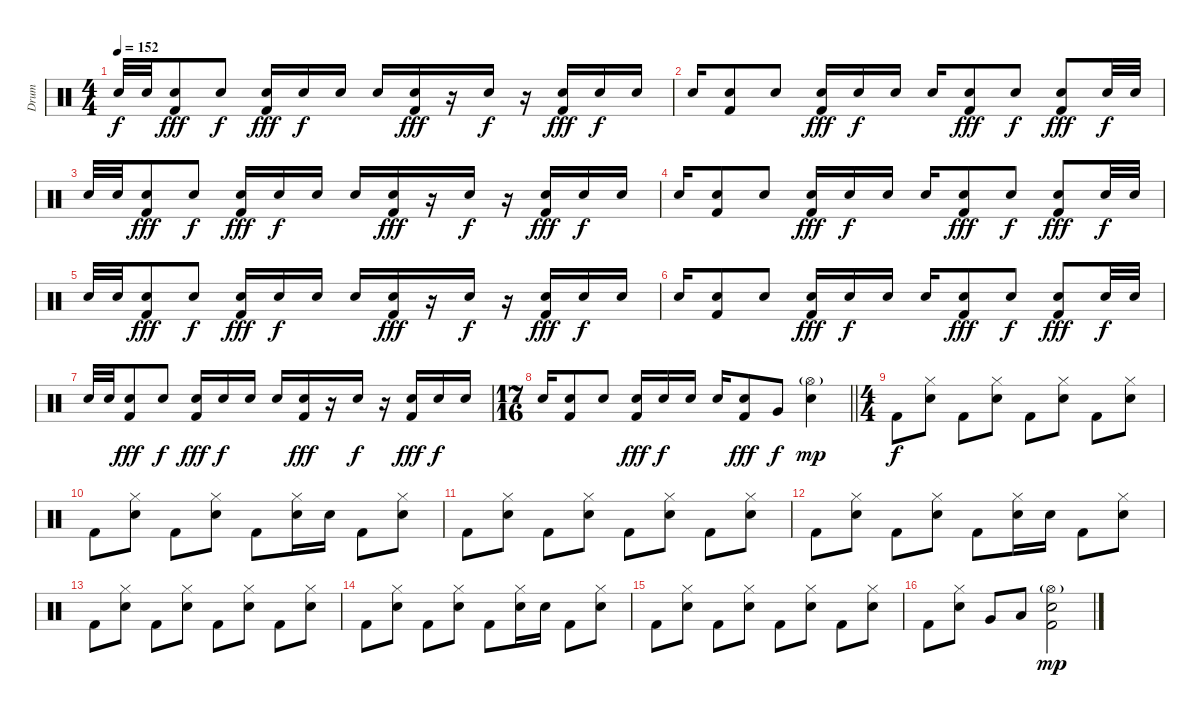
\track ("Drum" "Drum") {instrument percussion}
\staff {score}
\articulation defaults
\ts (4 4)
\tempo 152
\clef neutral
\ks c "Electric Snare (hit)".32{dy f volume 13} "Electric Snare (hit)".32
("Electric Snare (hit)" "Kick (hit) 2").8{dy fff} "Electric Snare (hit)".8{dy f} ("Electric Snare (hit)" "Kick (hit) 2").16{dy fff} "Electric Snare (hit)".16{dy f} "Electric Snare (hit)".16 "Electric Snare (hit)".16 ("Electric Snare (hit)" "Kick (hit) 2").16{dy fff} r.16 "Electric Snare (hit)".16{dy f} r.16 ("Electric Snare (hit)" "Kick (hit) 2").16{dy fff} "Electric Snare (hit)".16{dy f} "Electric Snare (hit)".16 |
"Electric Snare (hit)".16 ("Electric Snare (hit)" "Kick (hit) 2").8 "Electric Snare (hit)".8 ("Electric Snare (hit)" "Kick (hit) 2").16{dy fff} "Electric Snare (hit)".16{dy f} "Electric Snare (hit)".16 "Electric Snare (hit)".16 ("Electric Snare (hit)" "Kick (hit) 2").8{dy fff} "Electric Snare (hit)".8{dy f} ("Electric Snare (hit)" "Kick (hit) 2").8{dy fff} "Electric Snare (hit)".32{dy f} "Electric Snare (hit)".32 |
"Electric Snare (hit)".32 "Electric Snare (hit)".32 ("Electric Snare (hit)" "Kick (hit) 2").8{dy fff} "Electric Snare (hit)".8{dy f} ("Electric Snare (hit)" "Kick (hit) 2").16{dy fff} "Electric Snare (hit)".16{dy f} "Electric Snare (hit)".16 "Electric Snare (hit)".16 ("Electric Snare (hit)" "Kick (hit) 2").16{dy fff} r.16 "Electric Snare (hit)".16{dy f} r.16 ("Electric Snare (hit)" "Kick (hit) 2").16{dy fff} "Electric Snare (hit)".16{dy f} "Electric Snare (hit)".16 |
"Electric Snare (hit)".16 ("Electric Snare (hit)" "Kick (hit) 2").8 "Electric Snare (hit)".8 ("Electric Snare (hit)" "Kick (hit) 2").16{dy fff} "Electric Snare (hit)".16{dy f} "Electric Snare (hit)".16 "Electric Snare (hit)".16 ("Electric Snare (hit)" "Kick (hit) 2").8{dy fff} "Electric Snare (hit)".8{dy f} ("Electric Snare (hit)" "Kick (hit) 2").8{dy fff} "Electric Snare (hit)".32{dy f} "Electric Snare (hit)".32 |
"Electric Snare (hit)".32 "Electric Snare (hit)".32 ("Electric Snare (hit)" "Kick (hit) 2").8{dy fff} "Electric Snare (hit)".8{dy f} ("Electric Snare (hit)" "Kick (hit) 2").16{dy fff} "Electric Snare (hit)".16{dy f} "Electric Snare (hit)".16 "Electric Snare (hit)".16 ("Electric Snare (hit)" "Kick (hit) 2").16{dy fff} r.16 "Electric Snare (hit)".16{dy f} r.16 ("Electric Snare (hit)" "Kick (hit) 2").16{dy fff} "Electric Snare (hit)".16{dy f} "Electric Snare (hit)".16 |
"Electric Snare (hit)".16 ("Electric Snare (hit)" "Kick (hit) 2").8 "Electric Snare (hit)".8 ("Electric Snare (hit)" "Kick (hit) 2").16{dy fff} "Electric Snare (hit)".16{dy f} "Electric Snare (hit)".16 "Electric Snare (hit)".16 ("Electric Snare (hit)" "Kick (hit) 2").8{dy fff} "Electric Snare (hit)".8{dy f} ("Electric Snare (hit)" "Kick (hit) 2").8{dy fff} "Electric Snare (hit)".32{dy f} "Electric Snare (hit)".32 |
"Electric Snare (hit)".32 "Electric Snare (hit)".32 ("Electric Snare (hit)" "Kick (hit) 2").8{dy fff} "Electric Snare (hit)".8{dy f} ("Electric Snare (hit)" "Kick (hit) 2").16{dy fff} "Electric Snare (hit)".16{dy f} "Electric Snare (hit)".16 "Electric Snare (hit)".16 ("Electric Snare (hit)" "Kick (hit) 2").16{dy fff} r.16 "Electric Snare (hit)".16{dy f} r.16 ("Electric Snare (hit)" "Kick (hit) 2").16{dy fff} "Electric Snare (hit)".16{dy f} "Electric Snare (hit)".16 |
\ts (17 16)
\barLineRight lightlight "Electric Snare (hit)".16
("Electric Snare (hit)" "Kick (hit) 2").8 "Electric Snare (hit)".8 ("Electric Snare (hit)" "Kick (hit) 2").16{dy fff} "Electric Snare (hit)".16{dy f} "Electric Snare (hit)".16 "Electric Snare (hit)".16 ("Electric Snare (hit)" "Kick (hit) 2").8{dy fff} "Very Low Tom (hit)".8{dy f} ("Hi-Hat (open)"{g pm} "Electric Snare (hit)").4{dy mp} |
\ts (4 4)
"Kick (hit) 2".8{dy f} ("Hi-Hat (closed)" "Electric Snare (hit)").8 "Kick (hit) 2".8 ("Hi-Hat (closed)" "Electric Snare (hit)").8 "Kick (hit) 2".8 ("Hi-Hat (closed)" "Electric Snare (hit)").8 "Kick (hit) 2".8 ("Hi-Hat (closed)" "Electric Snare (hit)").8 |
"Kick (hit) 2".8 ("Hi-Hat (closed)" "Electric Snare (hit)").8 "Kick (hit) 2".8 ("Hi-Hat (closed)" "Electric Snare (hit)").8 "Kick (hit) 2".8 ("Hi-Hat (closed)" "Electric Snare (hit)").16 "Electric Snare (hit)".16 "Kick (hit) 2".8 ("Hi-Hat (closed)" "Electric Snare (hit)").8 |
"Kick (hit) 2".8 ("Hi-Hat (closed)" "Electric Snare (hit)").8 "Kick (hit) 2".8 ("Hi-Hat (closed)" "Electric Snare (hit)").8 "Kick (hit) 2".8 ("Hi-Hat (closed)" "Electric Snare (hit)").8 "Kick (hit) 2".8 ("Hi-Hat (closed)" "Electric Snare (hit)").8 |
"Kick (hit) 2".8 ("Hi-Hat (closed)" "Electric Snare (hit)").8 "Kick (hit) 2".8 ("Hi-Hat (closed)" "Electric Snare (hit)").8 "Kick (hit) 2".8 ("Hi-Hat (closed)" "Electric Snare (hit)").16 "Electric Snare (hit)".16 "Kick (hit) 2".8 ("Hi-Hat (closed)" "Electric Snare (hit)").8 |
"Kick (hit) 2".8 ("Hi-Hat (closed)" "Electric Snare (hit)").8 "Kick (hit) 2".8 ("Hi-Hat (closed)" "Electric Snare (hit)").8 "Kick (hit) 2".8 ("Hi-Hat (closed)" "Electric Snare (hit)").8 "Kick (hit) 2".8 ("Hi-Hat (closed)" "Electric Snare (hit)").8 |
"Kick (hit) 2".8 ("Hi-Hat (closed)" "Electric Snare (hit)").8 "Kick (hit) 2".8 ("Hi-Hat (closed)" "Electric Snare (hit)").8 "Kick (hit) 2".8 ("Hi-Hat (closed)" "Electric Snare (hit)").16 "Electric Snare (hit)".16 "Kick (hit) 2".8 ("Hi-Hat (closed)" "Electric Snare (hit)").8 |
"Kick (hit) 2".8 ("Hi-Hat (closed)" "Electric Snare (hit)").8 "Kick (hit) 2".8 ("Hi-Hat (closed)" "Electric Snare (hit)").8 "Kick (hit) 2".8 ("Hi-Hat (closed)" "Electric Snare (hit)").8 "Kick (hit) 2".8 ("Hi-Hat (closed)" "Electric Snare (hit)").8 |
"Kick (hit) 2".8 ("Hi-Hat (closed)" "Electric Snare (hit)").8 "Very Low Tom (hit)".8 "Low Floor Tom (hit)".8 ("Hi-Hat (open)"{g pm} "Electric Snare (hit)" "Kick (hit) 2").2{dy mp}
